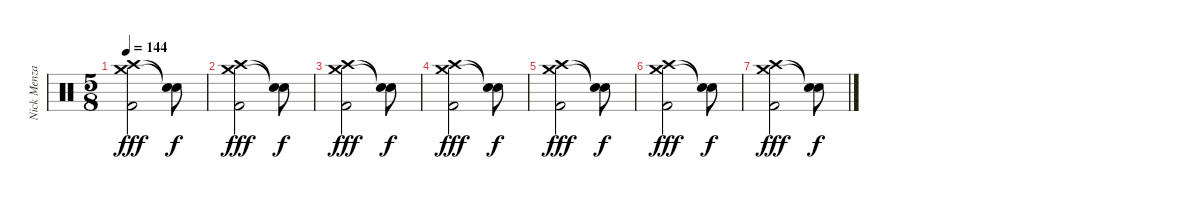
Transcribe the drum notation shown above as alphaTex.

\track ("Nick Menza" "Nick Menza") {instrument percussion}
\staff {score}
\articulation defaults
\ts (5 8)
\tempo 144
\clef neutral
\ks c
("Crash medium (hit)" "Crash high (hit)" "Kick (hit) 2").2{dy fff volume 6} ("Snare (hit)"{t} "Snare (hit)"{t}).8{dy f} |
("Crash medium (hit)" "Crash high (hit)" "Kick (hit) 2").2{dy fff volume 5} ("Snare (hit)"{t} "Snare (hit)"{t}).8{dy f} |
("Crash medium (hit)" "Crash high (hit)" "Kick (hit) 2").2{dy fff volume 4} ("Snare (hit)"{t} "Snare (hit)"{t}).8{dy f} |
("Crash medium (hit)" "Crash high (hit)" "Kick (hit) 2").2{dy fff volume 3} ("Snare (hit)"{t} "Snare (hit)"{t}).8{dy f} |
("Crash medium (hit)" "Crash high (hit)" "Kick (hit) 2").2{dy fff volume 2} ("Snare (hit)"{t} "Snare (hit)"{t}).8{dy f} |
("Crash medium (hit)" "Crash high (hit)" "Kick (hit) 2").2{dy fff volume 1} ("Snare (hit)"{t} "Snare (hit)"{t}).8{dy f} |
("Crash medium (hit)" "Crash high (hit)" "Kick (hit) 2").2{dy fff volume 0} ("Snare (hit)"{t} "Snare (hit)"{t}).8{dy f}
